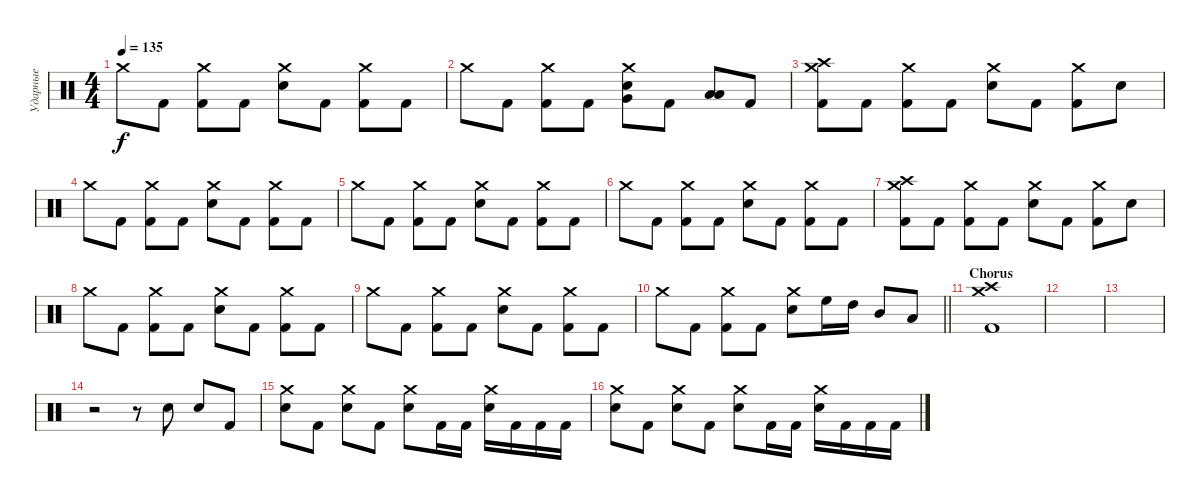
\track ("Ударные" "Ударные") {instrument percussion}
\staff {score}
\articulation defaults
\ts (4 4)
\tempo 135
\clef neutral
\ks c "Crash medium (hit)".8{dy f} "Kick (hit) 2".8
("Crash medium (hit)" "Kick (hit) 2").8 "Kick (hit) 2".8 ("Crash medium (hit)" "Electric Snare (hit)").8 "Kick (hit) 2".8 ("Crash medium (hit)" "Kick (hit) 2").8 "Kick (hit) 2".8 |
"Crash medium (hit)".8 "Kick (hit) 2".8 ("Crash medium (hit)" "Kick (hit) 2").8 "Kick (hit) 2".8 ("Crash medium (hit)" "Electric Snare (hit)" "Very Low Tom (hit)").8 "Kick (hit) 2".8 ("Low Tom (hit)" "Low Floor Tom (hit)").8 "Kick (hit) 2".8 |
("Crash medium (hit)" "Crash high (hit)" "Kick (hit) 2").8 "Kick (hit) 2".8 ("Crash medium (hit)" "Kick (hit) 2").8 "Kick (hit) 2".8 ("Crash medium (hit)" "Electric Snare (hit)").8 "Kick (hit) 2".8 ("Crash medium (hit)" "Kick (hit) 2").8 "Electric Snare (hit)".8 |
"Crash medium (hit)".8 "Kick (hit) 2".8 ("Crash medium (hit)" "Kick (hit) 2").8 "Kick (hit) 2".8 ("Crash medium (hit)" "Electric Snare (hit)").8 "Kick (hit) 2".8 ("Crash medium (hit)" "Kick (hit) 2").8 "Kick (hit) 2".8 |
"Crash medium (hit)".8 "Kick (hit) 2".8 ("Crash medium (hit)" "Kick (hit) 2").8 "Kick (hit) 2".8 ("Crash medium (hit)" "Electric Snare (hit)").8 "Kick (hit) 2".8 ("Crash medium (hit)" "Kick (hit) 2").8 "Kick (hit) 2".8 |
"Crash medium (hit)".8 "Kick (hit) 2".8 ("Crash medium (hit)" "Kick (hit) 2").8 "Kick (hit) 2".8 ("Crash medium (hit)" "Electric Snare (hit)").8 "Kick (hit) 2".8 ("Crash medium (hit)" "Kick (hit) 2").8 "Kick (hit) 2".8 |
("Crash medium (hit)" "Crash high (hit)" "Kick (hit) 2").8 "Kick (hit) 2".8 ("Crash medium (hit)" "Kick (hit) 2").8 "Kick (hit) 2".8 ("Crash medium (hit)" "Electric Snare (hit)").8 "Kick (hit) 2".8 ("Crash medium (hit)" "Kick (hit) 2").8 "Electric Snare (hit)".8 |
"Crash medium (hit)".8 "Kick (hit) 2".8 ("Crash medium (hit)" "Kick (hit) 2").8 "Kick (hit) 2".8 ("Crash medium (hit)" "Electric Snare (hit)").8 "Kick (hit) 2".8 ("Crash medium (hit)" "Kick (hit) 2").8 "Kick (hit) 2".8 |
"Crash medium (hit)".8 "Kick (hit) 2".8 ("Crash medium (hit)" "Kick (hit) 2").8 "Kick (hit) 2".8 ("Crash medium (hit)" "Electric Snare (hit)").8 "Kick (hit) 2".8 ("Crash medium (hit)" "Kick (hit) 2").8 "Kick (hit) 2".8 |
\barLineRight lightlight "Crash medium (hit)".8 "Kick (hit) 2".8
("Crash medium (hit)" "Kick (hit) 2").8 "Kick (hit) 2".8 ("Crash medium (hit)" "Electric Snare (hit)").8 "High Floor Tom (hit)".16 "High Tom (hit)".16 "Mid Tom (hit)".8 "Low Tom (hit)".8 |
\section ("" "Chorus")
("Crash medium (hit)" "Crash high (hit)" "Kick (hit) 2").1 |
|
|
r.2 r.8 "Electric Snare (hit)".8 "Electric Snare (hit)".8 "Kick (hit) 2".8 |
("Crash medium (hit)" "Electric Snare (hit)").8 "Kick (hit) 2".8 ("Crash medium (hit)" "Electric Snare (hit)").8 "Kick (hit) 2".8 ("Crash medium (hit)" "Electric Snare (hit)").8 "Kick (hit) 2".16 "Kick (hit) 2".16 ("Crash medium (hit)" "Electric Snare (hit)").16 "Kick (hit) 2".16 "Kick (hit) 2".16 "Kick (hit) 2".16 |
("Crash medium (hit)" "Electric Snare (hit)").8 "Kick (hit) 2".8 ("Crash medium (hit)" "Electric Snare (hit)").8 "Kick (hit) 2".8 ("Crash medium (hit)" "Electric Snare (hit)").8 "Kick (hit) 2".16 "Kick (hit) 2".16 ("Crash medium (hit)" "Electric Snare (hit)").16 "Kick (hit) 2".16 "Kick (hit) 2".16 "Kick (hit) 2".16
